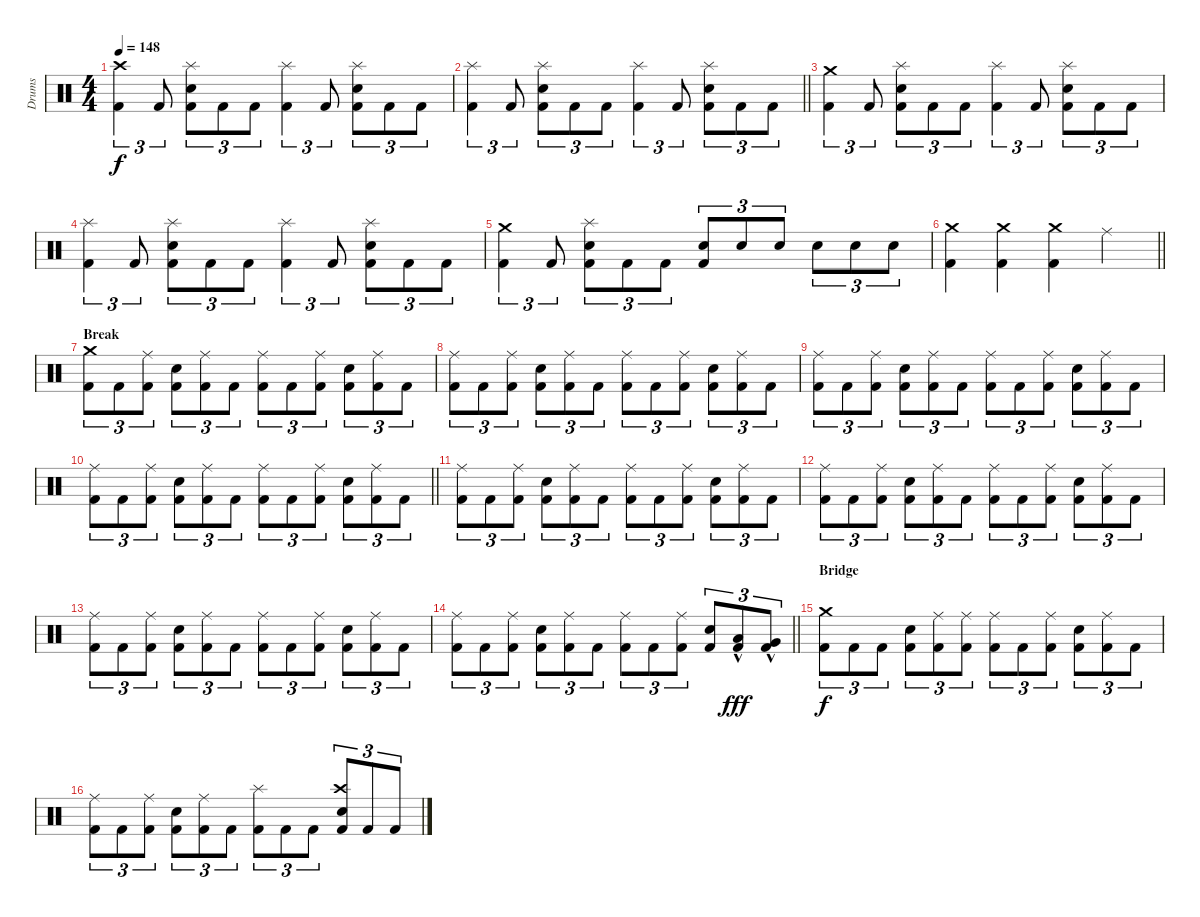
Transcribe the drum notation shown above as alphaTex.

\track ("Drums" "Drums") {instrument percussion}
\staff {score}
\articulation defaults
\ts (4 4)
\tempo 148
\clef neutral
\ks c
("Kick (hit) 2" "Crash high (hit)").4{tu (3 2) dy f} "Kick (hit) 2".8{tu (3 2)} ("Kick (hit) 2" "Snare (hit) 2" "Splash (hit)").8{tu (3 2)} "Kick (hit) 2".8{tu (3 2)} "Kick (hit) 2".8{tu (3 2)} ("Kick (hit) 2" "Splash (hit)").4{tu (3 2)} "Kick (hit) 2".8{tu (3 2)} ("Kick (hit) 2" "Snare (hit) 2" "Splash (hit)").8{tu (3 2)} "Kick (hit) 2".8{tu (3 2)} "Kick (hit) 2".8{tu (3 2)} |
\barLineRight lightlight
("Kick (hit) 2" "Splash (hit)").4{tu (3 2)} "Kick (hit) 2".8{tu (3 2)} ("Kick (hit) 2" "Snare (hit) 2" "Splash (hit)").8{tu (3 2)} "Kick (hit) 2".8{tu (3 2)} "Kick (hit) 2".8{tu (3 2)} ("Kick (hit) 2" "Splash (hit)").4{tu (3 2)} "Kick (hit) 2".8{tu (3 2)} ("Kick (hit) 2" "Snare (hit) 2" "Splash (hit)").8{tu (3 2)} "Kick (hit) 2".8{tu (3 2)} "Kick (hit) 2".8{tu (3 2)} |
\section ("" "")
("Kick (hit) 2" "Crash medium (hit)").4{tu (3 2)} "Kick (hit) 2".8{tu (3 2)} ("Kick (hit) 2" "Snare (hit) 2" "Splash (hit)").8{tu (3 2)} "Kick (hit) 2".8{tu (3 2)} "Kick (hit) 2".8{tu (3 2)} ("Kick (hit) 2" "Splash (hit)").4{tu (3 2)} "Kick (hit) 2".8{tu (3 2)} ("Kick (hit) 2" "Snare (hit) 2" "Splash (hit)").8{tu (3 2)} "Kick (hit) 2".8{tu (3 2)} "Kick (hit) 2".8{tu (3 2)} |
("Kick (hit) 2" "Splash (hit)").4{tu (3 2)} "Kick (hit) 2".8{tu (3 2)} ("Kick (hit) 2" "Snare (hit) 2" "Splash (hit)").8{tu (3 2)} "Kick (hit) 2".8{tu (3 2)} "Kick (hit) 2".8{tu (3 2)} ("Kick (hit) 2" "Splash (hit)").4{tu (3 2)} "Kick (hit) 2".8{tu (3 2)} ("Kick (hit) 2" "Snare (hit) 2" "Splash (hit)").8{tu (3 2)} "Kick (hit) 2".8{tu (3 2)} "Kick (hit) 2".8{tu (3 2)} |
("Kick (hit) 2" "Crash medium (hit)").4{tu (3 2)} "Kick (hit) 2".8{tu (3 2)} ("Kick (hit) 2" "Snare (hit) 2" "Splash (hit)").8{tu (3 2)} "Kick (hit) 2".8{tu (3 2)} "Kick (hit) 2".8{tu (3 2)} ("Kick (hit) 2" "Snare (hit) 2").8{tu (3 2)} "Snare (hit) 2".8{tu (3 2)} "Snare (hit) 2".8{tu (3 2)} "Snare (hit) 2".8{tu (3 2)} "Snare (hit) 2".8{tu (3 2)} "Snare (hit) 2".8{tu (3 2)} |
\barLineRight lightlight
("Kick (hit) 2" "Crash medium (hit)").4 ("Kick (hit) 2" "Crash medium (hit)").4 ("Kick (hit) 2" "Crash medium (hit)").4 "Ride (middle)".4 |
\section ("" "Break")
("Kick (hit) 2" "Crash medium (hit)").8{tu (3 2)} "Kick (hit) 2".8{tu (3 2)} ("Kick (hit) 2" "Ride (middle)").8{tu (3 2)} ("Kick (hit) 2" "Snare (hit) 2").8{tu (3 2)} ("Kick (hit) 2" "Ride (middle)").8{tu (3 2)} "Kick (hit) 2".8{tu (3 2)} ("Kick (hit) 2" "Ride (middle)").8{tu (3 2)} "Kick (hit) 2".8{tu (3 2)} ("Kick (hit) 2" "Ride (middle)").8{tu (3 2)} ("Kick (hit) 2" "Snare (hit) 2").8{tu (3 2)} ("Kick (hit) 2" "Ride (middle)").8{tu (3 2)} "Kick (hit) 2".8{tu (3 2)} |
("Kick (hit) 2" "Ride (middle)").8{tu (3 2)} "Kick (hit) 2".8{tu (3 2)} ("Kick (hit) 2" "Ride (middle)").8{tu (3 2)} ("Kick (hit) 2" "Snare (hit) 2").8{tu (3 2)} ("Kick (hit) 2" "Ride (middle)").8{tu (3 2)} "Kick (hit) 2".8{tu (3 2)} ("Kick (hit) 2" "Ride (middle)").8{tu (3 2)} "Kick (hit) 2".8{tu (3 2)} ("Kick (hit) 2" "Ride (middle)").8{tu (3 2)} ("Kick (hit) 2" "Snare (hit) 2").8{tu (3 2)} ("Kick (hit) 2" "Ride (middle)").8{tu (3 2)} "Kick (hit) 2".8{tu (3 2)} |
("Kick (hit) 2" "Ride (middle)").8{tu (3 2)} "Kick (hit) 2".8{tu (3 2)} ("Kick (hit) 2" "Ride (middle)").8{tu (3 2)} ("Kick (hit) 2" "Snare (hit) 2").8{tu (3 2)} ("Kick (hit) 2" "Ride (middle)").8{tu (3 2)} "Kick (hit) 2".8{tu (3 2)} ("Kick (hit) 2" "Ride (middle)").8{tu (3 2)} "Kick (hit) 2".8{tu (3 2)} ("Kick (hit) 2" "Ride (middle)").8{tu (3 2)} ("Kick (hit) 2" "Snare (hit) 2").8{tu (3 2)} ("Kick (hit) 2" "Ride (middle)").8{tu (3 2)} "Kick (hit) 2".8{tu (3 2)} |
\barLineRight lightlight
("Kick (hit) 2" "Ride (middle)").8{tu (3 2)} "Kick (hit) 2".8{tu (3 2)} ("Kick (hit) 2" "Ride (middle)").8{tu (3 2)} ("Kick (hit) 2" "Snare (hit) 2").8{tu (3 2)} ("Kick (hit) 2" "Ride (middle)").8{tu (3 2)} "Kick (hit) 2".8{tu (3 2)} ("Kick (hit) 2" "Ride (middle)").8{tu (3 2)} "Kick (hit) 2".8{tu (3 2)} ("Kick (hit) 2" "Ride (middle)").8{tu (3 2)} ("Kick (hit) 2" "Snare (hit) 2").8{tu (3 2)} ("Kick (hit) 2" "Ride (middle)").8{tu (3 2)} "Kick (hit) 2".8{tu (3 2)} |
\section ("" "")
("Kick (hit) 2" "Ride (middle)").8{tu (3 2)} "Kick (hit) 2".8{tu (3 2)} ("Kick (hit) 2" "Ride (middle)").8{tu (3 2)} ("Kick (hit) 2" "Snare (hit) 2").8{tu (3 2)} ("Kick (hit) 2" "Ride (middle)").8{tu (3 2)} "Kick (hit) 2".8{tu (3 2)} ("Kick (hit) 2" "Ride (middle)").8{tu (3 2)} "Kick (hit) 2".8{tu (3 2)} ("Kick (hit) 2" "Ride (middle)").8{tu (3 2)} ("Kick (hit) 2" "Snare (hit) 2").8{tu (3 2)} ("Kick (hit) 2" "Ride (middle)").8{tu (3 2)} "Kick (hit) 2".8{tu (3 2)} |
("Kick (hit) 2" "Ride (middle)").8{tu (3 2)} "Kick (hit) 2".8{tu (3 2)} ("Kick (hit) 2" "Ride (middle)").8{tu (3 2)} ("Kick (hit) 2" "Snare (hit) 2").8{tu (3 2)} ("Kick (hit) 2" "Ride (middle)").8{tu (3 2)} "Kick (hit) 2".8{tu (3 2)} ("Kick (hit) 2" "Ride (middle)").8{tu (3 2)} "Kick (hit) 2".8{tu (3 2)} ("Kick (hit) 2" "Ride (middle)").8{tu (3 2)} ("Kick (hit) 2" "Snare (hit) 2").8{tu (3 2)} ("Kick (hit) 2" "Ride (middle)").8{tu (3 2)} "Kick (hit) 2".8{tu (3 2)} |
("Kick (hit) 2" "Ride (middle)").8{tu (3 2)} "Kick (hit) 2".8{tu (3 2)} ("Kick (hit) 2" "Ride (middle)").8{tu (3 2)} ("Kick (hit) 2" "Snare (hit) 2").8{tu (3 2)} ("Kick (hit) 2" "Ride (middle)").8{tu (3 2)} "Kick (hit) 2".8{tu (3 2)} ("Kick (hit) 2" "Ride (middle)").8{tu (3 2)} "Kick (hit) 2".8{tu (3 2)} ("Kick (hit) 2" "Ride (middle)").8{tu (3 2)} ("Kick (hit) 2" "Snare (hit) 2").8{tu (3 2)} ("Kick (hit) 2" "Ride (middle)").8{tu (3 2)} "Kick (hit) 2".8{tu (3 2)} |
\barLineRight lightlight
("Kick (hit) 2" "Ride (middle)").8{tu (3 2)} "Kick (hit) 2".8{tu (3 2)} ("Kick (hit) 2" "Ride (middle)").8{tu (3 2)} ("Kick (hit) 2" "Snare (hit) 2").8{tu (3 2)} ("Kick (hit) 2" "Ride (middle)").8{tu (3 2)} "Kick (hit) 2".8{tu (3 2)} ("Kick (hit) 2" "Ride (middle)").8{tu (3 2)} "Kick (hit) 2".8{tu (3 2)} ("Kick (hit) 2" "Ride (middle)").8{tu (3 2)} ("Kick (hit) 2" "Snare (hit) 2").8{tu (3 2)} ("Kick (hit) 2" "Low Tom (hit)"{hac}).8{tu (3 2) dy fff} ("Kick (hit) 2" "Very Low Tom (hit)"{hac}).8{tu (3 2)} |
\section ("" "Bridge")
("Kick (hit) 2" "Crash medium (hit)").8{tu (3 2) dy f} "Kick (hit) 2".8{tu (3 2)} "Kick (hit) 2".8{tu (3 2)} ("Kick (hit) 2" "Snare (hit) 2").8{tu (3 2)} ("Kick (hit) 2" "Ride (middle)").8{tu (3 2)} ("Kick (hit) 2" "Ride (middle)").8{tu (3 2)} ("Kick (hit) 2" "Ride (middle)").8{tu (3 2)} "Kick (hit) 2".8{tu (3 2)} ("Kick (hit) 2" "Ride (middle)").8{tu (3 2)} ("Kick (hit) 2" "Snare (hit) 2").8{tu (3 2)} ("Kick (hit) 2" "Ride (middle)").8{tu (3 2)} "Kick (hit) 2".8{tu (3 2)} |
("Kick (hit) 2" "Ride (middle)").8{tu (3 2)} "Kick (hit) 2".8{tu (3 2)} ("Kick (hit) 2" "Ride (middle)").8{tu (3 2)} ("Kick (hit) 2" "Snare (hit) 2").8{tu (3 2)} ("Kick (hit) 2" "Ride (middle)").8{tu (3 2)} "Kick (hit) 2".8{tu (3 2)} ("Kick (hit) 2" "Splash (hit)").8{tu (3 2)} "Kick (hit) 2".8{tu (3 2)} "Kick (hit) 2".8{tu (3 2)} ("Kick (hit) 2" "Snare (hit) 2" "Crash high (hit)").8{tu (3 2)} "Kick (hit) 2".8{tu (3 2)} "Kick (hit) 2".8{tu (3 2)}
